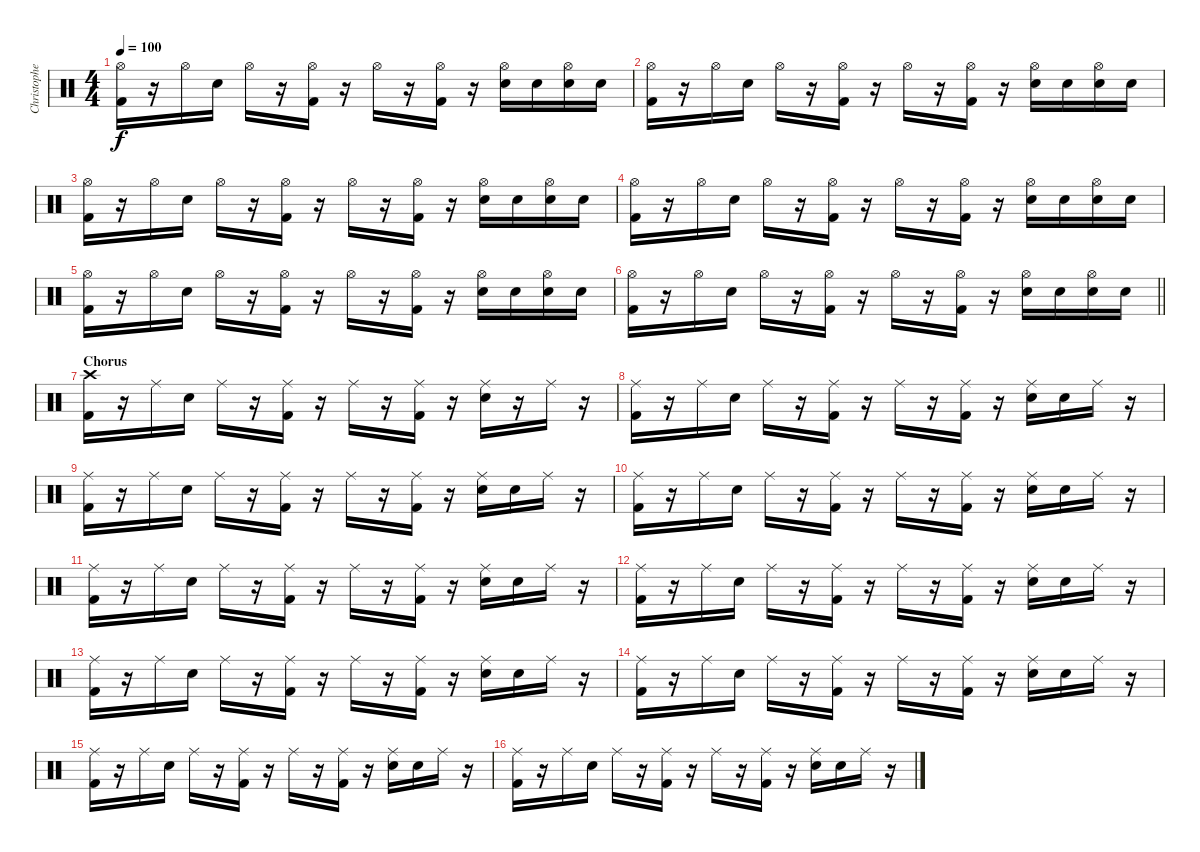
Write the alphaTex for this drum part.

\track ("Christopher - Drums" "Christophe") {instrument percussion}
\staff {score}
\articulation defaults
\ts (4 4)
\tempo 100
\clef neutral
\ks c
("Hi-Hat (open)" "Kick (hit) 2").16{dy f} r.16 "Hi-Hat (open)".16 "Electric Snare (hit)".16 "Hi-Hat (open)".16 r.16 ("Hi-Hat (open)" "Kick (hit) 2").16 r.16 "Hi-Hat (open)".16 r.16 ("Hi-Hat (open)" "Kick (hit) 2").16 r.16 ("Hi-Hat (open)" "Electric Snare (hit)").16 "Electric Snare (hit)".16 ("Hi-Hat (open)" "Electric Snare (hit)").16 "Electric Snare (hit)".16 |
("Hi-Hat (open)" "Kick (hit) 2").16 r.16 "Hi-Hat (open)".16 "Electric Snare (hit)".16 "Hi-Hat (open)".16 r.16 ("Hi-Hat (open)" "Kick (hit) 2").16 r.16 "Hi-Hat (open)".16 r.16 ("Hi-Hat (open)" "Kick (hit) 2").16 r.16 ("Hi-Hat (open)" "Electric Snare (hit)").16 "Electric Snare (hit)".16 ("Hi-Hat (open)" "Electric Snare (hit)").16 "Electric Snare (hit)".16 |
("Hi-Hat (open)" "Kick (hit) 2").16 r.16 "Hi-Hat (open)".16 "Electric Snare (hit)".16 "Hi-Hat (open)".16 r.16 ("Hi-Hat (open)" "Kick (hit) 2").16 r.16 "Hi-Hat (open)".16 r.16 ("Hi-Hat (open)" "Kick (hit) 2").16 r.16 ("Hi-Hat (open)" "Electric Snare (hit)").16 "Electric Snare (hit)".16 ("Hi-Hat (open)" "Electric Snare (hit)").16 "Electric Snare (hit)".16 |
("Hi-Hat (open)" "Kick (hit) 2").16 r.16 "Hi-Hat (open)".16 "Electric Snare (hit)".16 "Hi-Hat (open)".16 r.16 ("Hi-Hat (open)" "Kick (hit) 2").16 r.16 "Hi-Hat (open)".16 r.16 ("Hi-Hat (open)" "Kick (hit) 2").16 r.16 ("Hi-Hat (open)" "Electric Snare (hit)").16 "Electric Snare (hit)".16 ("Hi-Hat (open)" "Electric Snare (hit)").16 "Electric Snare (hit)".16 |
("Hi-Hat (open)" "Kick (hit) 2").16 r.16 "Hi-Hat (open)".16 "Electric Snare (hit)".16 "Hi-Hat (open)".16 r.16 ("Hi-Hat (open)" "Kick (hit) 2").16 r.16 "Hi-Hat (open)".16 r.16 ("Hi-Hat (open)" "Kick (hit) 2").16 r.16 ("Hi-Hat (open)" "Electric Snare (hit)").16 "Electric Snare (hit)".16 ("Hi-Hat (open)" "Electric Snare (hit)").16 "Electric Snare (hit)".16 |
\barLineRight lightlight
("Hi-Hat (open)" "Kick (hit) 2").16 r.16 "Hi-Hat (open)".16 "Electric Snare (hit)".16 "Hi-Hat (open)".16 r.16 ("Hi-Hat (open)" "Kick (hit) 2").16 r.16 "Hi-Hat (open)".16 r.16 ("Hi-Hat (open)" "Kick (hit) 2").16 r.16 ("Hi-Hat (open)" "Electric Snare (hit)").16 "Electric Snare (hit)".16 ("Hi-Hat (open)" "Electric Snare (hit)").16 "Electric Snare (hit)".16 |
\section ("" "Chorus")
("Crash high (hit)" "Kick (hit) 2").16 r.16 "Ride (middle)".16 "Electric Snare (hit)".16 "Ride (middle)".16 r.16 ("Ride (middle)" "Kick (hit) 2").16 r.16 "Ride (middle)".16 r.16 ("Ride (middle)" "Kick (hit) 2").16 r.16 ("Ride (middle)" "Electric Snare (hit)").16 r.16 "Ride (middle)".16 r.16 |
("Ride (middle)" "Kick (hit) 2").16 r.16 "Ride (middle)".16 "Electric Snare (hit)".16 "Ride (middle)".16 r.16 ("Ride (middle)" "Kick (hit) 2").16 r.16 "Ride (middle)".16 r.16 ("Ride (middle)" "Kick (hit) 2").16 r.16 ("Ride (middle)" "Electric Snare (hit)").16 "Electric Snare (hit)".16 "Ride (middle)".16 r.16 |
("Ride (middle)" "Kick (hit) 2").16 r.16 "Ride (middle)".16 "Electric Snare (hit)".16 "Ride (middle)".16 r.16 ("Ride (middle)" "Kick (hit) 2").16 r.16 "Ride (middle)".16 r.16 ("Ride (middle)" "Kick (hit) 2").16 r.16 ("Ride (middle)" "Electric Snare (hit)").16 "Electric Snare (hit)".16 "Ride (middle)".16 r.16 |
("Ride (middle)" "Kick (hit) 2").16 r.16 "Ride (middle)".16 "Electric Snare (hit)".16 "Ride (middle)".16 r.16 ("Ride (middle)" "Kick (hit) 2").16 r.16 "Ride (middle)".16 r.16 ("Ride (middle)" "Kick (hit) 2").16 r.16 ("Ride (middle)" "Electric Snare (hit)").16 "Electric Snare (hit)".16 "Ride (middle)".16 r.16 |
("Ride (middle)" "Kick (hit) 2").16 r.16 "Ride (middle)".16 "Electric Snare (hit)".16 "Ride (middle)".16 r.16 ("Ride (middle)" "Kick (hit) 2").16 r.16 "Ride (middle)".16 r.16 ("Ride (middle)" "Kick (hit) 2").16 r.16 ("Ride (middle)" "Electric Snare (hit)").16 "Electric Snare (hit)".16 "Ride (middle)".16 r.16 |
("Ride (middle)" "Kick (hit) 2").16 r.16 "Ride (middle)".16 "Electric Snare (hit)".16 "Ride (middle)".16 r.16 ("Ride (middle)" "Kick (hit) 2").16 r.16 "Ride (middle)".16 r.16 ("Ride (middle)" "Kick (hit) 2").16 r.16 ("Ride (middle)" "Electric Snare (hit)").16 "Electric Snare (hit)".16 "Ride (middle)".16 r.16 |
("Ride (middle)" "Kick (hit) 2").16 r.16 "Ride (middle)".16 "Electric Snare (hit)".16 "Ride (middle)".16 r.16 ("Ride (middle)" "Kick (hit) 2").16 r.16 "Ride (middle)".16 r.16 ("Ride (middle)" "Kick (hit) 2").16 r.16 ("Ride (middle)" "Electric Snare (hit)").16 "Electric Snare (hit)".16 "Ride (middle)".16 r.16 |
("Ride (middle)" "Kick (hit) 2").16 r.16 "Ride (middle)".16 "Electric Snare (hit)".16 "Ride (middle)".16 r.16 ("Ride (middle)" "Kick (hit) 2").16 r.16 "Ride (middle)".16 r.16 ("Ride (middle)" "Kick (hit) 2").16 r.16 ("Ride (middle)" "Electric Snare (hit)").16 "Electric Snare (hit)".16 "Ride (middle)".16 r.16 |
("Ride (middle)" "Kick (hit) 2").16 r.16 "Ride (middle)".16 "Electric Snare (hit)".16 "Ride (middle)".16 r.16 ("Ride (middle)" "Kick (hit) 2").16 r.16 "Ride (middle)".16 r.16 ("Ride (middle)" "Kick (hit) 2").16 r.16 ("Ride (middle)" "Electric Snare (hit)").16 "Electric Snare (hit)".16 "Ride (middle)".16 r.16 |
("Ride (middle)" "Kick (hit) 2").16 r.16 "Ride (middle)".16 "Electric Snare (hit)".16 "Ride (middle)".16 r.16 ("Ride (middle)" "Kick (hit) 2").16 r.16 "Ride (middle)".16 r.16 ("Ride (middle)" "Kick (hit) 2").16 r.16 ("Ride (middle)" "Electric Snare (hit)").16 "Electric Snare (hit)".16 "Ride (middle)".16 r.16
